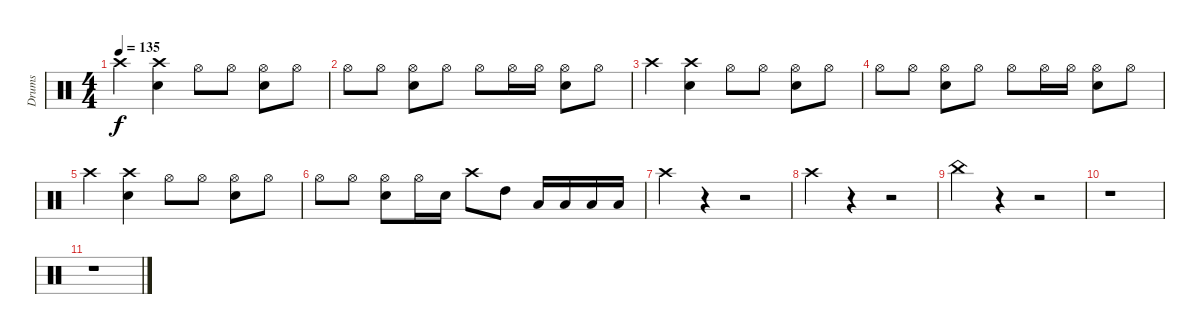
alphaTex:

\track ("Drums" "Drums") {instrument percussion}
\staff {score}
\articulation defaults
\ts (4 4)
\tempo 135
\clef neutral
\ks c "Crash high (hit)".4{dy f}
("Crash high (hit)" "Snare (hit) 2").4 "Hi-Hat (open)".8 "Hi-Hat (open)".8 ("Hi-Hat (open)" "Snare (hit) 2").8 "Hi-Hat (open)".8 |
"Hi-Hat (open)".8 "Hi-Hat (open)".8 ("Hi-Hat (open)" "Snare (hit) 2").8 "Hi-Hat (open)".8 "Hi-Hat (open)".8 "Hi-Hat (open)".16 "Hi-Hat (open)".16 ("Hi-Hat (open)" "Snare (hit) 2").8 "Hi-Hat (open)".8 |
"Crash high (hit)".4 ("Crash high (hit)" "Snare (hit) 2").4 "Hi-Hat (open)".8 "Hi-Hat (open)".8 ("Hi-Hat (open)" "Snare (hit) 2").8 "Hi-Hat (open)".8 |
"Hi-Hat (open)".8 "Hi-Hat (open)".8 ("Hi-Hat (open)" "Snare (hit) 2").8 "Hi-Hat (open)".8 "Hi-Hat (open)".8 "Hi-Hat (open)".16 "Hi-Hat (open)".16 ("Hi-Hat (open)" "Snare (hit) 2").8 "Hi-Hat (open)".8 |
"Crash high (hit)".4 ("Crash high (hit)" "Snare (hit) 2").4 "Hi-Hat (open)".8 "Hi-Hat (open)".8 ("Hi-Hat (open)" "Snare (hit) 2").8 "Hi-Hat (open)".8 |
"Hi-Hat (open)".8 "Hi-Hat (open)".8 ("Hi-Hat (open)" "Snare (hit) 2").8 "Hi-Hat (open)".16 "Snare (hit) 2".16 "Crash high (hit)".8 "High Tom (hit)".8 "Low Tom (hit)".16 "Low Tom (hit)".16 "Low Tom (hit)".16 "Low Tom (hit)".16 |
"Crash high (hit)".4 r.4 r.2 |
"Crash high (hit)".4 r.4 r.2 |
"China (hit)".4 r.4 r.2 |
r.1 |
r.1
